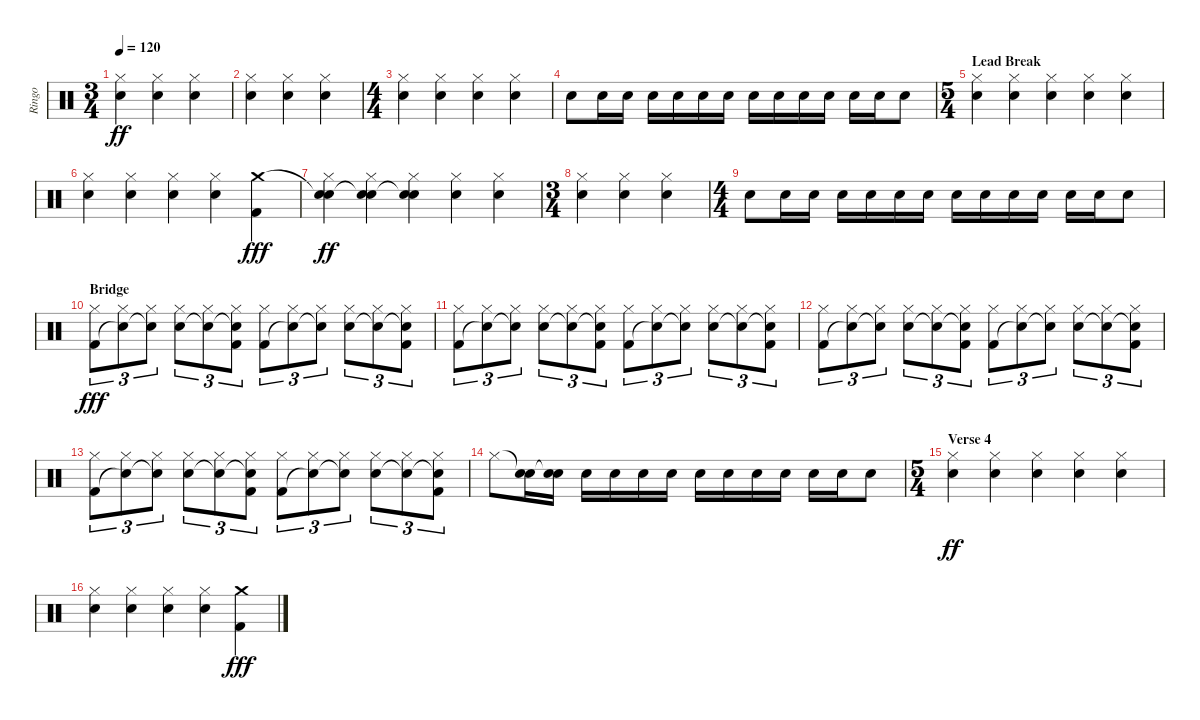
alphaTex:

\track ("Ringo" "Ringo") {instrument percussion}
\staff {score}
\articulation defaults
\ts (3 4)
\tempo 120
\clef neutral
\ks c
("Hi-Hat (closed)" "Snare (hit) 2").4{dy ff} ("Hi-Hat (closed)" "Snare (hit) 2").4 ("Hi-Hat (closed)" "Snare (hit) 2").4 |
("Hi-Hat (closed)" "Snare (hit) 2").4 ("Hi-Hat (closed)" "Snare (hit) 2").4 ("Hi-Hat (closed)" "Snare (hit) 2").4 |
\ts (4 4)
("Hi-Hat (closed)" "Snare (hit) 2").4 ("Hi-Hat (closed)" "Snare (hit) 2").4 ("Hi-Hat (closed)" "Snare (hit) 2").4 ("Hi-Hat (closed)" "Snare (hit) 2").4 |
"Snare (hit) 2".8 "Snare (hit) 2".16 "Snare (hit) 2".16 "Snare (hit) 2".16 "Snare (hit) 2".16 "Snare (hit) 2".16 "Snare (hit) 2".16 "Snare (hit) 2".16 "Snare (hit) 2".16 "Snare (hit) 2".16 "Snare (hit) 2".16 "Snare (hit) 2".16 "Snare (hit) 2".16 "Snare (hit) 2".8 |
\ts (5 4)
\section ("" "Lead Break")
("Hi-Hat (closed)" "Snare (hit) 2").4 ("Hi-Hat (closed)" "Snare (hit) 2").4 ("Hi-Hat (closed)" "Snare (hit) 2").4 ("Hi-Hat (closed)" "Snare (hit) 2").4 ("Hi-Hat (closed)" "Snare (hit) 2").4 |
("Hi-Hat (closed)" "Snare (hit) 2").4 ("Hi-Hat (closed)" "Snare (hit) 2").4 ("Hi-Hat (closed)" "Snare (hit) 2").4 ("Hi-Hat (closed)" "Snare (hit) 2").4 ("Crash medium (hit)" "Kick (hit) 2").4{dy fff} |
("Snare (hit)"{t} "Hi-Hat (closed)" "Snare (hit) 2").4{dy ff} ("Snare (hit)"{t} "Hi-Hat (closed)" "Snare (hit) 2").4 ("Snare (hit)"{t} "Hi-Hat (closed)" "Snare (hit) 2").4 ("Hi-Hat (closed)" "Snare (hit) 2").4 ("Hi-Hat (closed)" "Snare (hit) 2").4 |
\ts (3 4)
("Hi-Hat (closed)" "Snare (hit) 2").4 ("Hi-Hat (closed)" "Snare (hit) 2").4 ("Hi-Hat (closed)" "Snare (hit) 2").4 |
\ts (4 4)
"Snare (hit) 2".8 "Snare (hit) 2".16 "Snare (hit) 2".16 "Snare (hit) 2".16 "Snare (hit) 2".16 "Snare (hit) 2".16 "Snare (hit) 2".16 "Snare (hit) 2".16 "Snare (hit) 2".16 "Snare (hit) 2".16 "Snare (hit) 2".16 "Snare (hit) 2".16 "Snare (hit) 2".16 "Snare (hit) 2".8 |
\section ("" "Bridge")
("Hi-Hat (closed)" "Kick (hit) 2").8{tu (3 2) dy fff} ("Hi-Hat (closed)" "Snare (hit)"{t}).8{tu (3 2)} ("Hi-Hat (closed)" "Snare (hit)"{t}).8{tu (3 2)} ("Hi-Hat (closed)" "Snare (hit) 2").8{tu (3 2)} ("Hi-Hat (closed)" "Snare (hit)"{t}).8{tu (3 2)} ("Hi-Hat (closed)" "Snare (hit)"{t} "Kick (hit) 2").8{tu (3 2)} ("Hi-Hat (closed)" "Kick (hit) 2").8{tu (3 2)} ("Hi-Hat (closed)" "Snare (hit)"{t}).8{tu (3 2)} ("Hi-Hat (closed)" "Snare (hit)"{t}).8{tu (3 2)} ("Hi-Hat (closed)" "Snare (hit) 2").8{tu (3 2)} ("Hi-Hat (closed)" "Snare (hit)"{t}).8{tu (3 2)} ("Hi-Hat (closed)" "Snare (hit)"{t} "Kick (hit) 2").8{tu (3 2)} |
("Hi-Hat (closed)" "Kick (hit) 2").8{tu (3 2)} ("Hi-Hat (closed)" "Snare (hit)"{t}).8{tu (3 2)} ("Hi-Hat (closed)" "Snare (hit)"{t}).8{tu (3 2)} ("Hi-Hat (closed)" "Snare (hit) 2").8{tu (3 2)} ("Hi-Hat (closed)" "Snare (hit)"{t}).8{tu (3 2)} ("Hi-Hat (closed)" "Snare (hit)"{t} "Kick (hit) 2").8{tu (3 2)} ("Hi-Hat (closed)" "Kick (hit) 2").8{tu (3 2)} ("Hi-Hat (closed)" "Snare (hit)"{t}).8{tu (3 2)} ("Hi-Hat (closed)" "Snare (hit)"{t}).8{tu (3 2)} ("Hi-Hat (closed)" "Snare (hit) 2").8{tu (3 2)} ("Hi-Hat (closed)" "Snare (hit)"{t}).8{tu (3 2)} ("Hi-Hat (closed)" "Snare (hit)"{t} "Kick (hit) 2").8{tu (3 2)} |
("Hi-Hat (closed)" "Kick (hit) 2").8{tu (3 2)} ("Hi-Hat (closed)" "Snare (hit)"{t}).8{tu (3 2)} ("Hi-Hat (closed)" "Snare (hit)"{t}).8{tu (3 2)} ("Hi-Hat (closed)" "Snare (hit) 2").8{tu (3 2)} ("Hi-Hat (closed)" "Snare (hit)"{t}).8{tu (3 2)} ("Hi-Hat (closed)" "Snare (hit)"{t} "Kick (hit) 2").8{tu (3 2)} ("Hi-Hat (closed)" "Kick (hit) 2").8{tu (3 2)} ("Hi-Hat (closed)" "Snare (hit)"{t}).8{tu (3 2)} ("Hi-Hat (closed)" "Snare (hit)"{t}).8{tu (3 2)} ("Hi-Hat (closed)" "Snare (hit) 2").8{tu (3 2)} ("Hi-Hat (closed)" "Snare (hit)"{t}).8{tu (3 2)} ("Hi-Hat (closed)" "Snare (hit)"{t} "Kick (hit) 2").8{tu (3 2)} |
("Hi-Hat (closed)" "Kick (hit) 2").8{tu (3 2)} ("Hi-Hat (closed)" "Snare (hit)"{t}).8{tu (3 2)} ("Hi-Hat (closed)" "Snare (hit)"{t}).8{tu (3 2)} ("Hi-Hat (closed)" "Snare (hit) 2").8{tu (3 2)} ("Hi-Hat (closed)" "Snare (hit)"{t}).8{tu (3 2)} ("Hi-Hat (closed)" "Snare (hit)"{t} "Kick (hit) 2").8{tu (3 2)} ("Hi-Hat (closed)" "Kick (hit) 2").8{tu (3 2)} ("Hi-Hat (closed)" "Snare (hit)"{t}).8{tu (3 2)} ("Hi-Hat (closed)" "Snare (hit)"{t}).8{tu (3 2)} ("Hi-Hat (closed)" "Snare (hit) 2").8{tu (3 2)} ("Hi-Hat (closed)" "Snare (hit)"{t}).8{tu (3 2)} ("Hi-Hat (closed)" "Snare (hit)"{t} "Kick (hit) 2").8{tu (3 2)} |
"Hi-Hat (closed)".8 ("Snare (hit)"{t} "Snare (hit) 2").16 ("Snare (hit)"{t} "Snare (hit) 2").16 "Snare (hit) 2".16 "Snare (hit) 2".16 "Snare (hit) 2".16 "Snare (hit) 2".16 "Snare (hit) 2".16 "Snare (hit) 2".16 "Snare (hit) 2".16 "Snare (hit) 2".16 "Snare (hit) 2".16 "Snare (hit) 2".16 "Snare (hit) 2".8 |
\ts (5 4)
\section ("" "Verse 4")
("Hi-Hat (closed)" "Snare (hit) 2").4{dy ff} ("Hi-Hat (closed)" "Snare (hit) 2").4 ("Hi-Hat (closed)" "Snare (hit) 2").4 ("Hi-Hat (closed)" "Snare (hit) 2").4 ("Hi-Hat (closed)" "Snare (hit) 2").4 |
("Hi-Hat (closed)" "Snare (hit) 2").4 ("Hi-Hat (closed)" "Snare (hit) 2").4 ("Hi-Hat (closed)" "Snare (hit) 2").4 ("Hi-Hat (closed)" "Snare (hit) 2").4 ("Crash medium (hit)" "Kick (hit) 2").4{dy fff}
